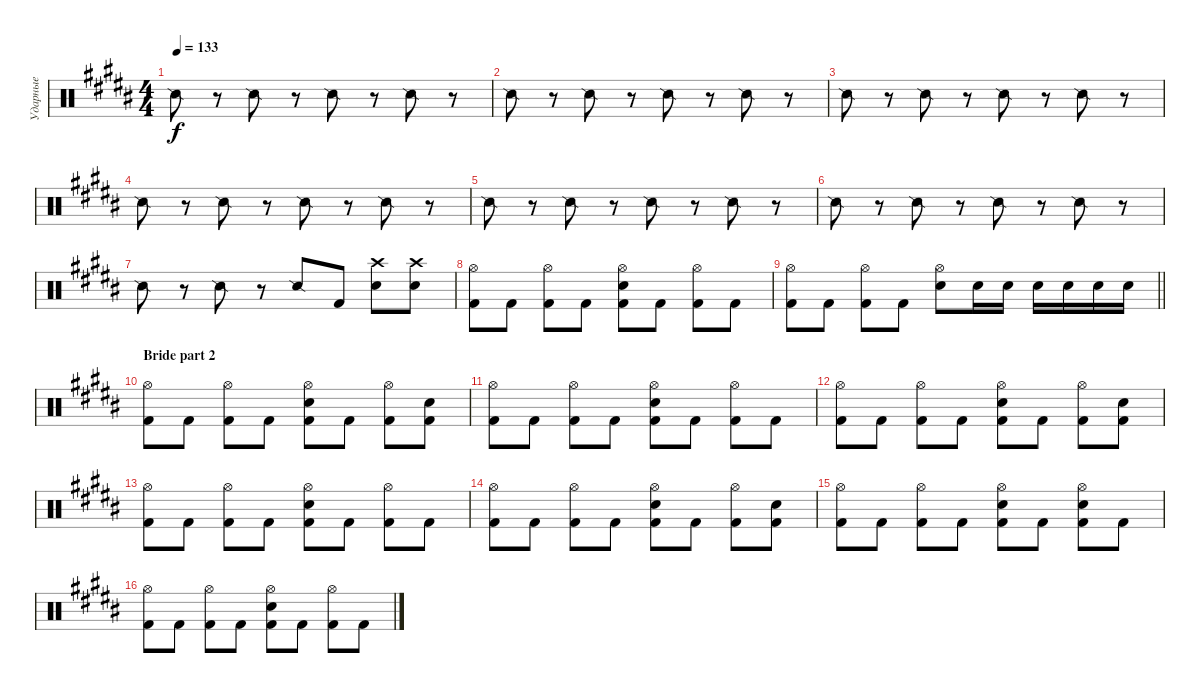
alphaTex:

\track ("Ударные" "Ударные") {instrument percussion}
\staff {score}
\articulation defaults
\ts (4 4)
\tempo 133
\clef neutral
\ks b "Snare (side stick) 2".8{dy f}
r.8 "Snare (side stick) 2".8 r.8 "Snare (side stick) 2".8 r.8 "Snare (side stick) 2".8 r.8 |
"Snare (side stick) 2".8 r.8 "Snare (side stick) 2".8 r.8 "Snare (side stick) 2".8 r.8 "Snare (side stick) 2".8 r.8 |
"Snare (side stick) 2".8 r.8 "Snare (side stick) 2".8 r.8 "Snare (side stick) 2".8 r.8 "Snare (side stick) 2".8 r.8 |
"Snare (side stick) 2".8 r.8 "Snare (side stick) 2".8 r.8 "Snare (side stick) 2".8 r.8 "Snare (side stick) 2".8 r.8 |
"Snare (side stick) 2".8 r.8 "Snare (side stick) 2".8 r.8 "Snare (side stick) 2".8 r.8 "Snare (side stick) 2".8 r.8 |
"Snare (side stick) 2".8 r.8 "Snare (side stick) 2".8 r.8 "Snare (side stick) 2".8 r.8 "Snare (side stick) 2".8 r.8 |
"Snare (side stick) 2".8 r.8 "Snare (side stick) 2".8 r.8 "Snare (side stick) 2".8 "Kick (hit) 2".8 ("Crash high (hit)" "Electric Snare (hit)").8 ("Crash high (hit)" "Electric Snare (hit)").8 |
("Hi-Hat (open)" "Kick (hit) 2").8 "Kick (hit) 2".8 ("Hi-Hat (open)" "Kick (hit) 2").8 "Kick (hit) 2".8 ("Hi-Hat (open)" "Electric Snare (hit)" "Kick (hit) 2").8 "Kick (hit) 2".8 ("Hi-Hat (open)" "Kick (hit) 2").8 "Kick (hit) 2".8 |
\barLineRight lightlight
("Hi-Hat (open)" "Kick (hit) 2").8 "Kick (hit) 2".8 ("Hi-Hat (open)" "Kick (hit) 2").8 "Kick (hit) 2".8 ("Hi-Hat (open)" "Electric Snare (hit)").8 "Electric Snare (hit)".16 "Electric Snare (hit)".16 "Electric Snare (hit)".16 "Electric Snare (hit)".16 "Electric Snare (hit)".16 "Electric Snare (hit)".16 |
\section ("" "Bride part 2")
("Hi-Hat (open)" "Kick (hit) 2").8 "Kick (hit) 2".8 ("Hi-Hat (open)" "Kick (hit) 2").8 "Kick (hit) 2".8 ("Hi-Hat (open)" "Electric Snare (hit)" "Kick (hit) 2").8 "Kick (hit) 2".8 ("Hi-Hat (open)" "Kick (hit) 2").8 ("Electric Snare (hit)" "Kick (hit) 2").8 |
("Hi-Hat (open)" "Kick (hit) 2").8 "Kick (hit) 2".8 ("Hi-Hat (open)" "Kick (hit) 2").8 "Kick (hit) 2".8 ("Hi-Hat (open)" "Electric Snare (hit)" "Kick (hit) 2").8 "Kick (hit) 2".8 ("Hi-Hat (open)" "Kick (hit) 2").8 "Kick (hit) 2".8 |
("Hi-Hat (open)" "Kick (hit) 2").8 "Kick (hit) 2".8 ("Hi-Hat (open)" "Kick (hit) 2").8 "Kick (hit) 2".8 ("Hi-Hat (open)" "Electric Snare (hit)" "Kick (hit) 2").8 "Kick (hit) 2".8 ("Hi-Hat (open)" "Kick (hit) 2").8 ("Electric Snare (hit)" "Kick (hit) 2").8 |
("Hi-Hat (open)" "Kick (hit) 2").8 "Kick (hit) 2".8 ("Hi-Hat (open)" "Kick (hit) 2").8 "Kick (hit) 2".8 ("Hi-Hat (open)" "Electric Snare (hit)" "Kick (hit) 2").8 "Kick (hit) 2".8 ("Hi-Hat (open)" "Kick (hit) 2").8 "Kick (hit) 2".8 |
("Hi-Hat (open)" "Kick (hit) 2").8 "Kick (hit) 2".8 ("Hi-Hat (open)" "Kick (hit) 2").8 "Kick (hit) 2".8 ("Hi-Hat (open)" "Electric Snare (hit)" "Kick (hit) 2").8 "Kick (hit) 2".8 ("Hi-Hat (open)" "Kick (hit) 2").8 ("Electric Snare (hit)" "Kick (hit) 2").8 |
("Hi-Hat (open)" "Kick (hit) 2").8 "Kick (hit) 2".8 ("Hi-Hat (open)" "Kick (hit) 2").8 "Kick (hit) 2".8 ("Hi-Hat (open)" "Electric Snare (hit)" "Kick (hit) 2").8 "Kick (hit) 2".8 ("Hi-Hat (open)" "Electric Snare (hit)" "Kick (hit) 2").8 "Kick (hit) 2".8 |
("Hi-Hat (open)" "Kick (hit) 2").8 "Kick (hit) 2".8 ("Hi-Hat (open)" "Kick (hit) 2").8 "Kick (hit) 2".8 ("Hi-Hat (open)" "Electric Snare (hit)" "Kick (hit) 2").8 "Kick (hit) 2".8 ("Hi-Hat (open)" "Kick (hit) 2").8 "Kick (hit) 2".8
